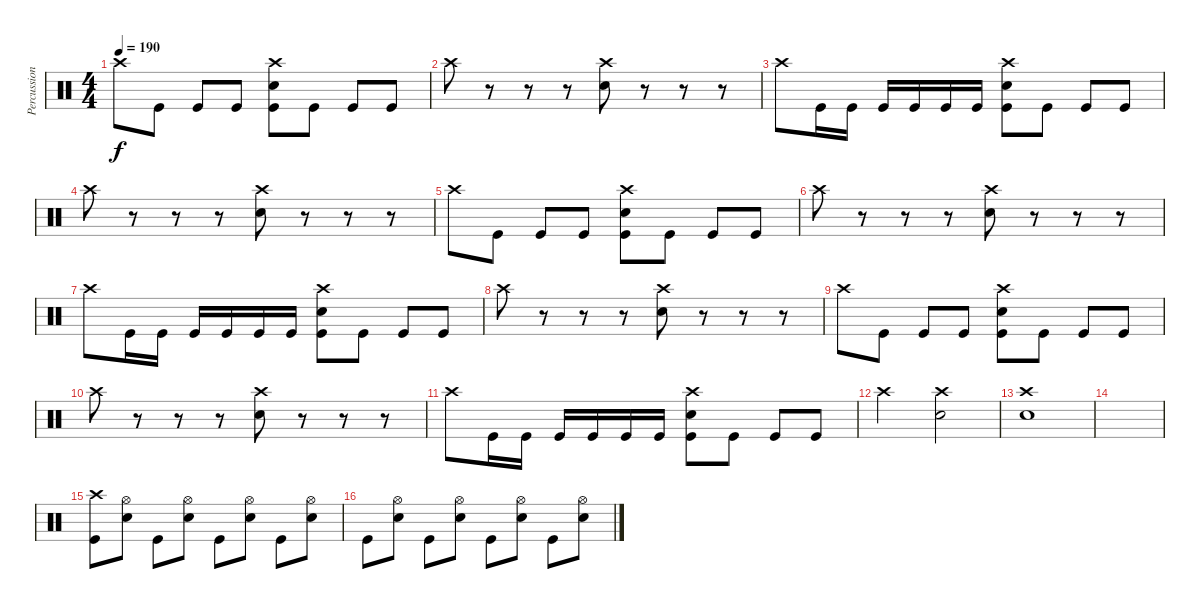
\track ("Percussion" "Percussion") {instrument percussion}
\staff {score}
\articulation defaults
\ts (4 4)
\tempo 190
\clef neutral
\ks c "Crash high (hit)".8{dy f} "Kick (hit)".8 "Kick (hit)".8 "Kick (hit)".8
("Kick (hit)" "Electric Snare (hit)" "Crash high (hit)").8 "Kick (hit)".8 "Kick (hit)".8 "Kick (hit)".8 |
"Crash high (hit)".8 r.8 r.8 r.8 ("Electric Snare (hit)" "Crash high (hit)").8 r.8 r.8 r.8 |
"Crash high (hit)".8 "Kick (hit)".16 "Kick (hit)".16 "Kick (hit)".16 "Kick (hit)".16 "Kick (hit)".16 "Kick (hit)".16 ("Kick (hit)" "Electric Snare (hit)" "Crash high (hit)").8 "Kick (hit)".8 "Kick (hit)".8 "Kick (hit)".8 |
"Crash high (hit)".8 r.8 r.8 r.8 ("Electric Snare (hit)" "Crash high (hit)").8 r.8 r.8 r.8 |
"Crash high (hit)".8 "Kick (hit)".8 "Kick (hit)".8 "Kick (hit)".8 ("Kick (hit)" "Electric Snare (hit)" "Crash high (hit)").8 "Kick (hit)".8 "Kick (hit)".8 "Kick (hit)".8 |
"Crash high (hit)".8 r.8 r.8 r.8 ("Electric Snare (hit)" "Crash high (hit)").8 r.8 r.8 r.8 |
"Crash high (hit)".8 "Kick (hit)".16 "Kick (hit)".16 "Kick (hit)".16 "Kick (hit)".16 "Kick (hit)".16 "Kick (hit)".16 ("Kick (hit)" "Electric Snare (hit)" "Crash high (hit)").8 "Kick (hit)".8 "Kick (hit)".8 "Kick (hit)".8 |
"Crash high (hit)".8 r.8 r.8 r.8 ("Electric Snare (hit)" "Crash high (hit)").8 r.8 r.8 r.8 |
"Crash high (hit)".8 "Kick (hit)".8 "Kick (hit)".8 "Kick (hit)".8 ("Kick (hit)" "Electric Snare (hit)" "Crash high (hit)").8 "Kick (hit)".8 "Kick (hit)".8 "Kick (hit)".8 |
"Crash high (hit)".8 r.8 r.8 r.8 ("Electric Snare (hit)" "Crash high (hit)").8 r.8 r.8 r.8 |
"Crash high (hit)".8 "Kick (hit)".16 "Kick (hit)".16 "Kick (hit)".16 "Kick (hit)".16 "Kick (hit)".16 "Kick (hit)".16 ("Kick (hit)" "Electric Snare (hit)" "Crash high (hit)").8 "Kick (hit)".8 "Kick (hit)".8 "Kick (hit)".8 |
"Crash high (hit)".2 ("Electric Snare (hit)" "Crash high (hit)").2 |
("Electric Snare (hit)" "Crash high (hit)").1 |
|
("Kick (hit)" "Crash high (hit)").8 ("Electric Snare (hit)" "Hi-Hat (open)").8 "Kick (hit)".8 ("Electric Snare (hit)" "Hi-Hat (open)").8 "Kick (hit)".8 ("Electric Snare (hit)" "Hi-Hat (open)").8 "Kick (hit)".8 ("Electric Snare (hit)" "Hi-Hat (open)").8 |
"Kick (hit)".8 ("Electric Snare (hit)" "Hi-Hat (open)").8 "Kick (hit)".8 ("Electric Snare (hit)" "Hi-Hat (open)").8 "Kick (hit)".8 ("Electric Snare (hit)" "Hi-Hat (open)").8 "Kick (hit)".8 ("Electric Snare (hit)" "Hi-Hat (open)").8
